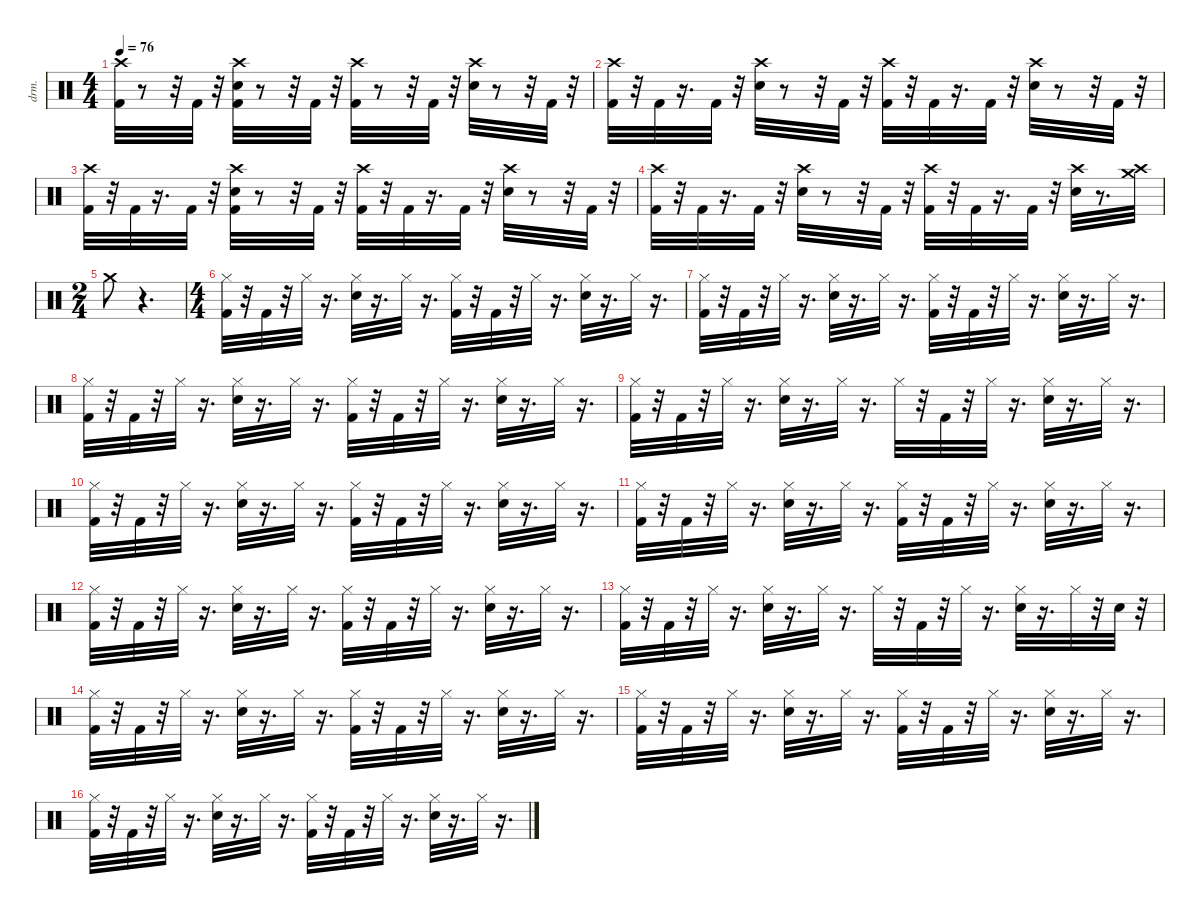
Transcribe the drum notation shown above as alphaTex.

\defaultSystemsLayout 4
\hideDynamics
\bracketExtendMode nobrackets
\otherSystemsTrackNameOrientation horizontal
\track ("Drums" "drm.") {instrument percussion}
\staff {score}
\articulation defaults
\ts (4 4)
\tempo 76
\clef neutral
\ks c
("Crash high (hit)" "Kick (hit) 2").32{dy fff} r.8 r.32 "Kick (hit) 2".32 r.32 ("Crash high (hit)" "Kick (hit) 2" "Snare (hit) 2").32{dy f} r.8 r.32 "Kick (hit) 2".32{dy fff} r.32 ("Crash high (hit)" "Kick (hit) 2").32{dy f} r.8 r.32 "Kick (hit) 2".32{dy fff} r.32 ("Crash high (hit)" "Snare (hit) 2").32{dy f} r.8 r.32 "Kick (hit) 2".32{dy fff} r.32 |
("Crash high (hit)" "Kick (hit) 2").32{dy f} r.32 "Kick (hit) 2".32{dy fff} r.16{d} "Kick (hit) 2".32 r.32 ("Crash high (hit)" "Snare (hit) 2").32{dy f} r.8 r.32 "Kick (hit) 2".32{dy fff} r.32 ("Crash high (hit)" "Kick (hit) 2").32{dy f} r.32 "Kick (hit) 2".32{dy fff} r.16{d} "Kick (hit) 2".32 r.32 ("Crash high (hit)" "Snare (hit) 2").32{dy f} r.8 r.32 "Kick (hit) 2".32{dy fff} r.32 |
("Crash high (hit)" "Kick (hit) 2").32 r.32 "Kick (hit) 2".32 r.16{d} "Kick (hit) 2".32 r.32 ("Crash high (hit)" "Kick (hit) 2" "Snare (hit) 2").32{dy f} r.8 r.32 "Kick (hit) 2".32{dy fff} r.32 ("Crash high (hit)" "Kick (hit) 2").32{dy f} r.32 "Kick (hit) 2".32{dy fff} r.16{d} "Kick (hit) 2".32 r.32 ("Crash high (hit)" "Snare (hit) 2").32{dy f} r.8 r.32 "Kick (hit) 2".32{dy fff} r.32 |
("Crash high (hit)" "Kick (hit) 2").32{dy f} r.32 "Kick (hit) 2".32{dy fff} r.16{d} "Kick (hit) 2".32 r.32 ("Crash high (hit)" "Snare (hit) 2").32{dy f} r.8 r.32 "Kick (hit) 2".32{dy fff} r.32 ("Crash high (hit)" "Kick (hit) 2").32{dy f} r.32 "Kick (hit) 2".32{dy fff} r.16{d} "Kick (hit) 2".32 r.32 ("Crash high (hit)" "Snare (hit) 2").32{dy f} r.8{d} ("Crash high (hit)" "Crash medium (hit)").32{dy fff} |
\ts (2 4)
\beaming (8 2 2)
"Crash medium (hit)".8{dy f} r.4{d} |
\ts (4 4)
\beaming (8 2 2 2 2)
("Hi-Hat (closed)" "Kick (hit) 2").32{dy fff} r.32 "Kick (hit) 2".32 r.32 "Hi-Hat (closed)".32 r.16{d} ("Hi-Hat (closed)" "Snare (hit) 2").32 r.16{d} "Hi-Hat (closed)".32 r.16{d} ("Hi-Hat (closed)" "Kick (hit) 2").32 r.32 "Kick (hit) 2".32 r.32 "Hi-Hat (closed)".32 r.16{d} ("Hi-Hat (closed)" "Snare (hit) 2").32 r.16{d} "Hi-Hat (closed)".32 r.16{d} |
("Kick (hit) 2" "Hi-Hat (closed)").32 r.32 "Kick (hit) 2".32 r.32 "Hi-Hat (closed)".32 r.16{d} ("Snare (hit) 2" "Hi-Hat (closed)").32 r.16{d} "Hi-Hat (closed)".32 r.16{d} ("Kick (hit) 2" "Hi-Hat (closed)").32 r.32 "Kick (hit) 2".32 r.32 "Hi-Hat (closed)".32 r.16{d} ("Snare (hit) 2" "Hi-Hat (closed)").32 r.16{d} "Hi-Hat (closed)".32 r.16{d} |
("Hi-Hat (closed)" "Kick (hit) 2").32 r.32 "Kick (hit) 2".32 r.32 "Hi-Hat (closed)".32 r.16{d} ("Hi-Hat (closed)" "Snare (hit) 2").32 r.16{d} "Hi-Hat (closed)".32 r.16{d} ("Hi-Hat (closed)" "Kick (hit) 2").32 r.32 "Kick (hit) 2".32 r.32 "Hi-Hat (closed)".32 r.16{d} ("Hi-Hat (closed)" "Snare (hit) 2").32 r.16{d} "Hi-Hat (closed)".32 r.16{d} |
("Kick (hit) 2" "Hi-Hat (closed)").32 r.32 "Kick (hit) 2".32 r.32 "Hi-Hat (closed)".32 r.16{d} ("Snare (hit) 2" "Hi-Hat (closed)").32 r.16{d} "Hi-Hat (closed)".32 r.16{d} "Hi-Hat (closed)".32 r.32 "Kick (hit) 2".32 r.32 "Hi-Hat (closed)".32 r.16{d} ("Snare (hit) 2" "Hi-Hat (closed)").32 r.16{d} "Hi-Hat (closed)".32 r.16{d} |
("Hi-Hat (closed)" "Kick (hit) 2").32 r.32 "Kick (hit) 2".32 r.32 "Hi-Hat (closed)".32 r.16{d} ("Hi-Hat (closed)" "Snare (hit) 2").32 r.16{d} "Hi-Hat (closed)".32 r.16{d} ("Hi-Hat (closed)" "Kick (hit) 2").32 r.32 "Kick (hit) 2".32 r.32 "Hi-Hat (closed)".32 r.16{d} ("Hi-Hat (closed)" "Snare (hit) 2").32 r.16{d} "Hi-Hat (closed)".32 r.16{d} |
("Kick (hit) 2" "Hi-Hat (closed)").32 r.32 "Kick (hit) 2".32 r.32 "Hi-Hat (closed)".32 r.16{d} ("Snare (hit) 2" "Hi-Hat (closed)").32 r.16{d} "Hi-Hat (closed)".32 r.16{d} ("Kick (hit) 2" "Hi-Hat (closed)").32 r.32 "Kick (hit) 2".32 r.32 "Hi-Hat (closed)".32 r.16{d} ("Snare (hit) 2" "Hi-Hat (closed)").32 r.16{d} "Hi-Hat (closed)".32 r.16{d} |
("Hi-Hat (closed)" "Kick (hit) 2").32 r.32 "Kick (hit) 2".32 r.32 "Hi-Hat (closed)".32 r.16{d} ("Hi-Hat (closed)" "Snare (hit) 2").32 r.16{d} "Hi-Hat (closed)".32 r.16{d} ("Hi-Hat (closed)" "Kick (hit) 2").32 r.32 "Kick (hit) 2".32 r.32 "Hi-Hat (closed)".32 r.16{d} ("Hi-Hat (closed)" "Snare (hit) 2").32 r.16{d} "Hi-Hat (closed)".32 r.16{d} |
("Kick (hit) 2" "Hi-Hat (closed)").32 r.32 "Kick (hit) 2".32 r.32 "Hi-Hat (closed)".32 r.16{d} ("Snare (hit) 2" "Hi-Hat (closed)").32 r.16{d} "Hi-Hat (closed)".32 r.16{d} "Hi-Hat (closed)".32 r.32 "Kick (hit) 2".32 r.32 "Hi-Hat (closed)".32 r.16{d} ("Snare (hit) 2" "Hi-Hat (closed)").32 r.16{d} "Hi-Hat (closed)".32 r.32 "Snare (hit) 2".32 r.32 |
("Hi-Hat (closed)" "Kick (hit) 2").32 r.32 "Kick (hit) 2".32 r.32 "Hi-Hat (closed)".32 r.16{d} ("Hi-Hat (closed)" "Snare (hit) 2").32 r.16{d} "Hi-Hat (closed)".32 r.16{d} ("Hi-Hat (closed)" "Kick (hit) 2").32 r.32 "Kick (hit) 2".32 r.32 "Hi-Hat (closed)".32 r.16{d} ("Hi-Hat (closed)" "Snare (hit) 2").32 r.16{d} "Hi-Hat (closed)".32 r.16{d} |
("Kick (hit) 2" "Hi-Hat (closed)").32 r.32 "Kick (hit) 2".32 r.32 "Hi-Hat (closed)".32 r.16{d} ("Snare (hit) 2" "Hi-Hat (closed)").32 r.16{d} "Hi-Hat (closed)".32 r.16{d} ("Kick (hit) 2" "Hi-Hat (closed)").32 r.32 "Kick (hit) 2".32 r.32 "Hi-Hat (closed)".32 r.16{d} ("Snare (hit) 2" "Hi-Hat (closed)").32 r.16{d} "Hi-Hat (closed)".32 r.16{d} |
("Hi-Hat (closed)" "Kick (hit) 2").32 r.32 "Kick (hit) 2".32 r.32 "Hi-Hat (closed)".32 r.16{d} ("Hi-Hat (closed)" "Snare (hit) 2").32 r.16{d} "Hi-Hat (closed)".32 r.16{d} ("Hi-Hat (closed)" "Kick (hit) 2").32 r.32 "Kick (hit) 2".32 r.32 "Hi-Hat (closed)".32 r.16{d} ("Hi-Hat (closed)" "Snare (hit) 2").32 r.16{d} "Hi-Hat (closed)".32 r.16{d}
